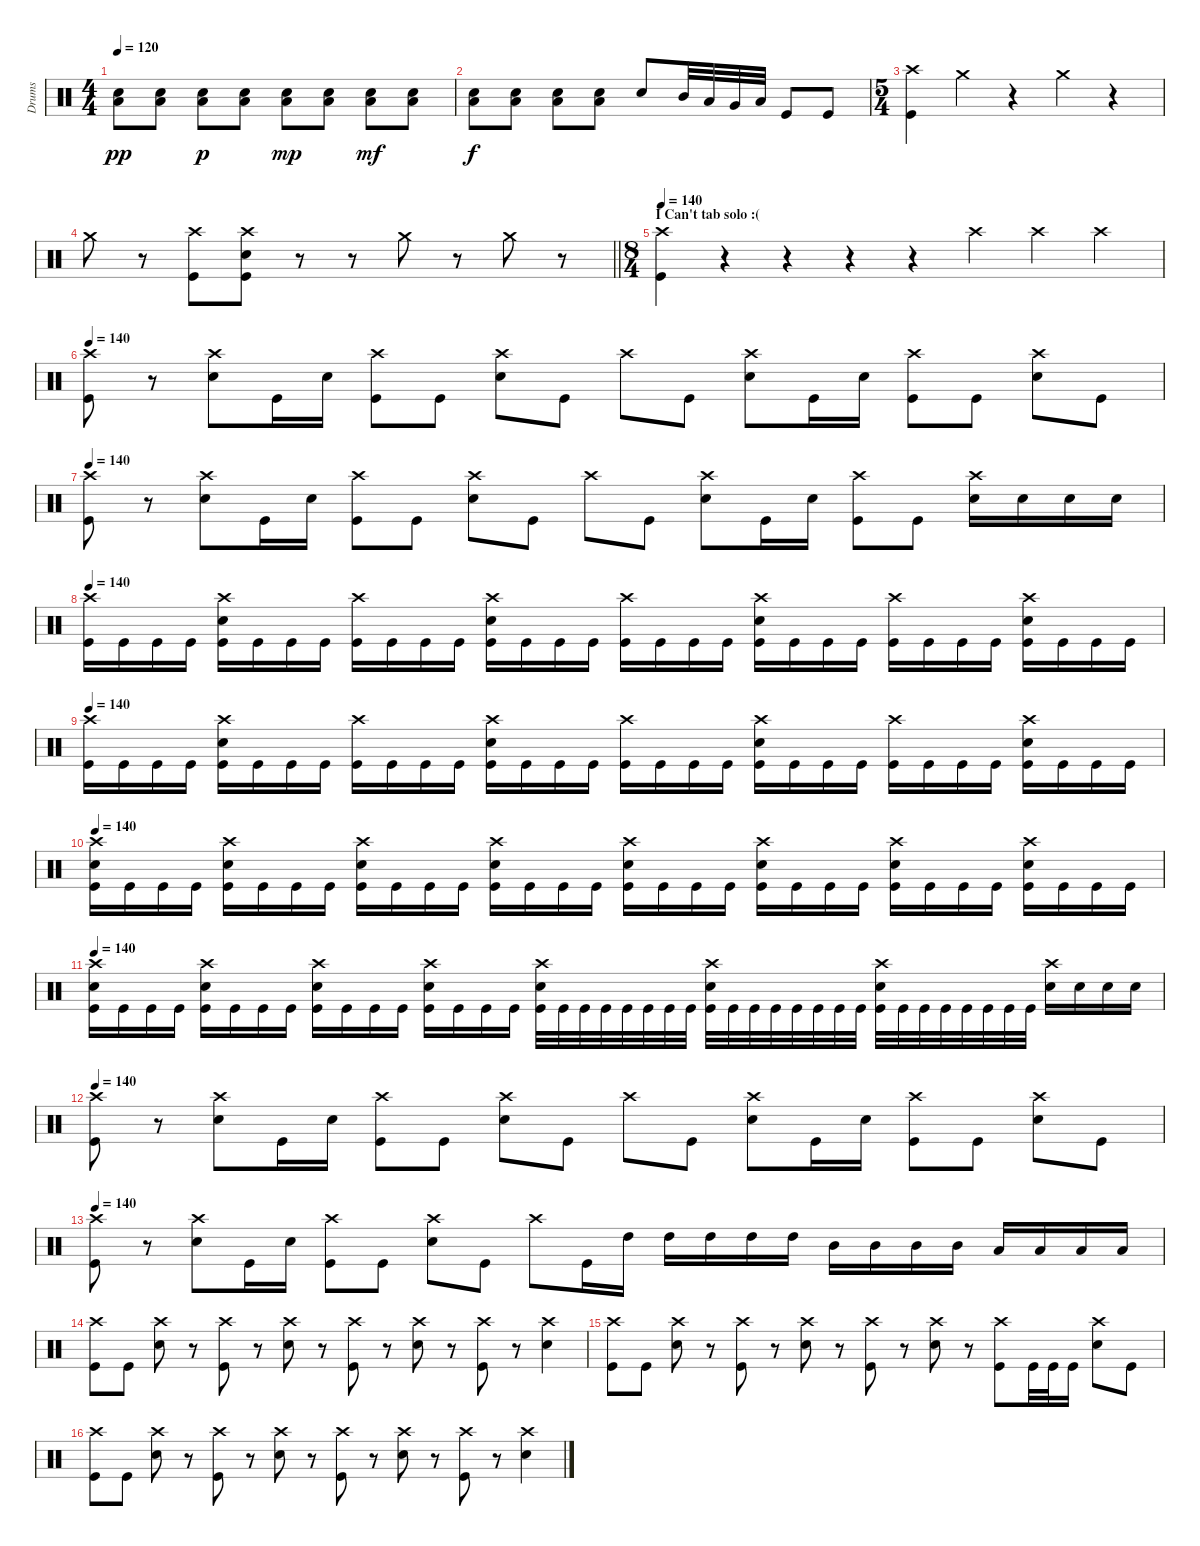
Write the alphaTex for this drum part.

\track ("Drums" "Drums") {instrument percussion}
\staff {score}
\articulation defaults
\ts (4 4)
\tempo 120
\clef neutral
\ks c
("Snare (hit) 2" "Low Floor Tom (hit)").8{dy pp} ("Snare (hit) 2" "Low Floor Tom (hit)").8 ("Snare (hit) 2" "Low Floor Tom (hit)").8{dy p} ("Snare (hit) 2" "Low Floor Tom (hit)").8 ("Snare (hit) 2" "Low Floor Tom (hit)").8{dy mp} ("Snare (hit) 2" "Low Floor Tom (hit)").8 ("Snare (hit) 2" "Low Floor Tom (hit)").8{dy mf} ("Snare (hit) 2" "Low Floor Tom (hit)").8 |
("Snare (hit) 2" "Low Floor Tom (hit)").8{dy f} ("Snare (hit) 2" "Low Floor Tom (hit)").8 ("Snare (hit) 2" "Low Floor Tom (hit)").8 ("Snare (hit) 2" "Low Floor Tom (hit)").8 "Snare (hit) 2".8 "Mid Tom (hit)".32 "Low Tom (hit)".32 "Very Low Tom (hit)".32 "Low Floor Tom (hit)".32 "Kick (hit)".8 "Kick (hit)".8 |
\ts (5 4)
("Crash high (hit)" "Kick (hit)").4 "Crash medium (hit)".4 r.4 "Crash medium (hit)".4 r.4 |
\barLineRight lightlight "Crash medium (hit)".8
r.8 ("Crash high (hit)" "Kick (hit)").8 ("Crash high (hit)" "Snare (hit) 2" "Kick (hit)").8 r.8 r.8 "Crash medium (hit)".8 r.8 "Crash medium (hit)".8 r.8 |
\ts (8 4)
\section ("" "I Can't tab solo :(")
\tempo 140
("Crash high (hit)" "Kick (hit)").4 r.4 r.4 r.4 r.4 "Crash high (hit)".4 "Crash high (hit)".4 "Crash high (hit)".4 |
\tempo 140
("Crash high (hit)" "Kick (hit)").8 r.8 ("Crash high (hit)" "Snare (hit) 2").8 "Kick (hit)".16 "Snare (hit) 2".16 ("Crash high (hit)" "Kick (hit)").8 "Kick (hit)".8 ("Crash high (hit)" "Snare (hit) 2").8 "Kick (hit)".8 "Crash high (hit)".8 "Kick (hit)".8 ("Crash high (hit)" "Snare (hit) 2").8 "Kick (hit)".16 "Snare (hit) 2".16 ("Crash high (hit)" "Kick (hit)").8 "Kick (hit)".8 ("Crash high (hit)" "Snare (hit) 2").8 "Kick (hit)".8 |
\tempo 140
("Crash high (hit)" "Kick (hit)").8 r.8 ("Crash high (hit)" "Snare (hit) 2").8 "Kick (hit)".16 "Snare (hit) 2".16 ("Crash high (hit)" "Kick (hit)").8 "Kick (hit)".8 ("Crash high (hit)" "Snare (hit) 2").8 "Kick (hit)".8 "Crash high (hit)".8 "Kick (hit)".8 ("Crash high (hit)" "Snare (hit) 2").8 "Kick (hit)".16 "Snare (hit) 2".16 ("Crash high (hit)" "Kick (hit)").8 "Kick (hit)".8 ("Crash high (hit)" "Snare (hit) 2").16 "Snare (hit) 2".16 "Snare (hit) 2".16 "Snare (hit) 2".16 |
\tempo 140
("Crash high (hit)" "Kick (hit)").16 "Kick (hit)".16 "Kick (hit)".16 "Kick (hit)".16 ("Crash high (hit)" "Snare (hit) 2" "Kick (hit)").16 "Kick (hit)".16 "Kick (hit)".16 "Kick (hit)".16 ("Crash high (hit)" "Kick (hit)").16 "Kick (hit)".16 "Kick (hit)".16 "Kick (hit)".16 ("Crash high (hit)" "Snare (hit) 2" "Kick (hit)").16 "Kick (hit)".16 "Kick (hit)".16 "Kick (hit)".16 ("Crash high (hit)" "Kick (hit)").16 "Kick (hit)".16 "Kick (hit)".16 "Kick (hit)".16 ("Crash high (hit)" "Snare (hit) 2" "Kick (hit)").16 "Kick (hit)".16 "Kick (hit)".16 "Kick (hit)".16 ("Crash high (hit)" "Kick (hit)").16 "Kick (hit)".16 "Kick (hit)".16 "Kick (hit)".16 ("Crash high (hit)" "Snare (hit) 2" "Kick (hit)").16 "Kick (hit)".16 "Kick (hit)".16 "Kick (hit)".16 |
\tempo 140
("Crash high (hit)" "Kick (hit)").16 "Kick (hit)".16 "Kick (hit)".16 "Kick (hit)".16 ("Crash high (hit)" "Snare (hit) 2" "Kick (hit)").16 "Kick (hit)".16 "Kick (hit)".16 "Kick (hit)".16 ("Crash high (hit)" "Kick (hit)").16 "Kick (hit)".16 "Kick (hit)".16 "Kick (hit)".16 ("Crash high (hit)" "Snare (hit) 2" "Kick (hit)").16 "Kick (hit)".16 "Kick (hit)".16 "Kick (hit)".16 ("Crash high (hit)" "Kick (hit)").16 "Kick (hit)".16 "Kick (hit)".16 "Kick (hit)".16 ("Crash high (hit)" "Snare (hit) 2" "Kick (hit)").16 "Kick (hit)".16 "Kick (hit)".16 "Kick (hit)".16 ("Crash high (hit)" "Kick (hit)").16 "Kick (hit)".16 "Kick (hit)".16 "Kick (hit)".16 ("Crash high (hit)" "Snare (hit) 2" "Kick (hit)").16 "Kick (hit)".16 "Kick (hit)".16 "Kick (hit)".16 |
\tempo 140
("Crash high (hit)" "Snare (hit) 2" "Kick (hit)").16 "Kick (hit)".16 "Kick (hit)".16 "Kick (hit)".16 ("Crash high (hit)" "Snare (hit) 2" "Kick (hit)").16 "Kick (hit)".16 "Kick (hit)".16 "Kick (hit)".16 ("Crash high (hit)" "Snare (hit) 2" "Kick (hit)").16 "Kick (hit)".16 "Kick (hit)".16 "Kick (hit)".16 ("Crash high (hit)" "Snare (hit) 2" "Kick (hit)").16 "Kick (hit)".16 "Kick (hit)".16 "Kick (hit)".16 ("Crash high (hit)" "Snare (hit) 2" "Kick (hit)").16 "Kick (hit)".16 "Kick (hit)".16 "Kick (hit)".16 ("Crash high (hit)" "Snare (hit) 2" "Kick (hit)").16 "Kick (hit)".16 "Kick (hit)".16 "Kick (hit)".16 ("Crash high (hit)" "Snare (hit) 2" "Kick (hit)").16 "Kick (hit)".16 "Kick (hit)".16 "Kick (hit)".16 ("Crash high (hit)" "Snare (hit) 2" "Kick (hit)").16 "Kick (hit)".16 "Kick (hit)".16 "Kick (hit)".16 |
\tempo 140
("Crash high (hit)" "Snare (hit) 2" "Kick (hit)").16 "Kick (hit)".16 "Kick (hit)".16 "Kick (hit)".16 ("Crash high (hit)" "Snare (hit) 2" "Kick (hit)").16 "Kick (hit)".16 "Kick (hit)".16 "Kick (hit)".16 ("Crash high (hit)" "Snare (hit) 2" "Kick (hit)").16 "Kick (hit)".16 "Kick (hit)".16 "Kick (hit)".16 ("Crash high (hit)" "Snare (hit) 2" "Kick (hit)").16 "Kick (hit)".16 "Kick (hit)".16 "Kick (hit)".16 ("Crash high (hit)" "Snare (hit) 2" "Kick (hit)").32 "Kick (hit)".32 "Kick (hit)".32 "Kick (hit)".32 "Kick (hit)".32 "Kick (hit)".32 "Kick (hit)".32 "Kick (hit)".32 ("Crash high (hit)" "Snare (hit) 2" "Kick (hit)").32 "Kick (hit)".32 "Kick (hit)".32 "Kick (hit)".32 "Kick (hit)".32 "Kick (hit)".32 "Kick (hit)".32 "Kick (hit)".32 ("Crash high (hit)" "Snare (hit) 2" "Kick (hit)").32 "Kick (hit)".32 "Kick (hit)".32 "Kick (hit)".32 "Kick (hit)".32 "Kick (hit)".32 "Kick (hit)".32 "Kick (hit)".32 ("Crash high (hit)" "Snare (hit) 2").16 "Snare (hit) 2".16 "Snare (hit) 2".16 "Snare (hit) 2".16 |
\tempo 140
("Crash high (hit)" "Kick (hit)").8 r.8 ("Crash high (hit)" "Snare (hit) 2").8 "Kick (hit)".16 "Snare (hit) 2".16 ("Crash high (hit)" "Kick (hit)").8 "Kick (hit)".8 ("Crash high (hit)" "Snare (hit) 2").8 "Kick (hit)".8 "Crash high (hit)".8 "Kick (hit)".8 ("Crash high (hit)" "Snare (hit) 2").8 "Kick (hit)".16 "Snare (hit) 2".16 ("Crash high (hit)" "Kick (hit)").8 "Kick (hit)".8 ("Crash high (hit)" "Snare (hit) 2").8 "Kick (hit)".8 |
\tempo 140
("Crash high (hit)" "Kick (hit)").8 r.8 ("Crash high (hit)" "Snare (hit) 2").8 "Kick (hit)".16 "Snare (hit) 2".16 ("Crash high (hit)" "Kick (hit)").8 "Kick (hit)".8 ("Crash high (hit)" "Snare (hit) 2").8 "Kick (hit)".8 "Crash high (hit)".8 "Kick (hit)".16 "High Tom (hit)".16 "High Tom (hit)".16 "High Tom (hit)".16 "High Tom (hit)".16 "High Tom (hit)".16 "Mid Tom (hit)".16 "Mid Tom (hit)".16 "Mid Tom (hit)".16 "Mid Tom (hit)".16 "Low Tom (hit)".16 "Low Tom (hit)".16 "Low Tom (hit)".16 "Low Tom (hit)".16 |
("Crash high (hit)" "Kick (hit)").8 "Kick (hit)".8 ("Crash high (hit)" "Snare (hit) 2").8 r.8 ("Crash high (hit)" "Kick (hit)").8 r.8 ("Crash high (hit)" "Snare (hit) 2").8 r.8 ("Crash high (hit)" "Kick (hit)").8 r.8 ("Crash high (hit)" "Snare (hit) 2").8 r.8 ("Crash high (hit)" "Kick (hit)").8 r.8 ("Crash high (hit)" "Snare (hit) 2").4 |
("Crash high (hit)" "Kick (hit)").8 "Kick (hit)".8 ("Crash high (hit)" "Snare (hit) 2").8 r.8 ("Crash high (hit)" "Kick (hit)").8 r.8 ("Crash high (hit)" "Snare (hit) 2").8 r.8 ("Crash high (hit)" "Kick (hit)").8 r.8 ("Crash high (hit)" "Snare (hit) 2").8 r.8 ("Crash high (hit)" "Kick (hit)").8 "Kick (hit)".32 "Kick (hit)".32 "Kick (hit)".16 ("Crash high (hit)" "Snare (hit) 2").8 "Kick (hit)".8 |
("Crash high (hit)" "Kick (hit)").8 "Kick (hit)".8 ("Crash high (hit)" "Snare (hit) 2").8 r.8 ("Crash high (hit)" "Kick (hit)").8 r.8 ("Crash high (hit)" "Snare (hit) 2").8 r.8 ("Crash high (hit)" "Kick (hit)").8 r.8 ("Crash high (hit)" "Snare (hit) 2").8 r.8 ("Crash high (hit)" "Kick (hit)").8 r.8 ("Crash high (hit)" "Snare (hit) 2").4
